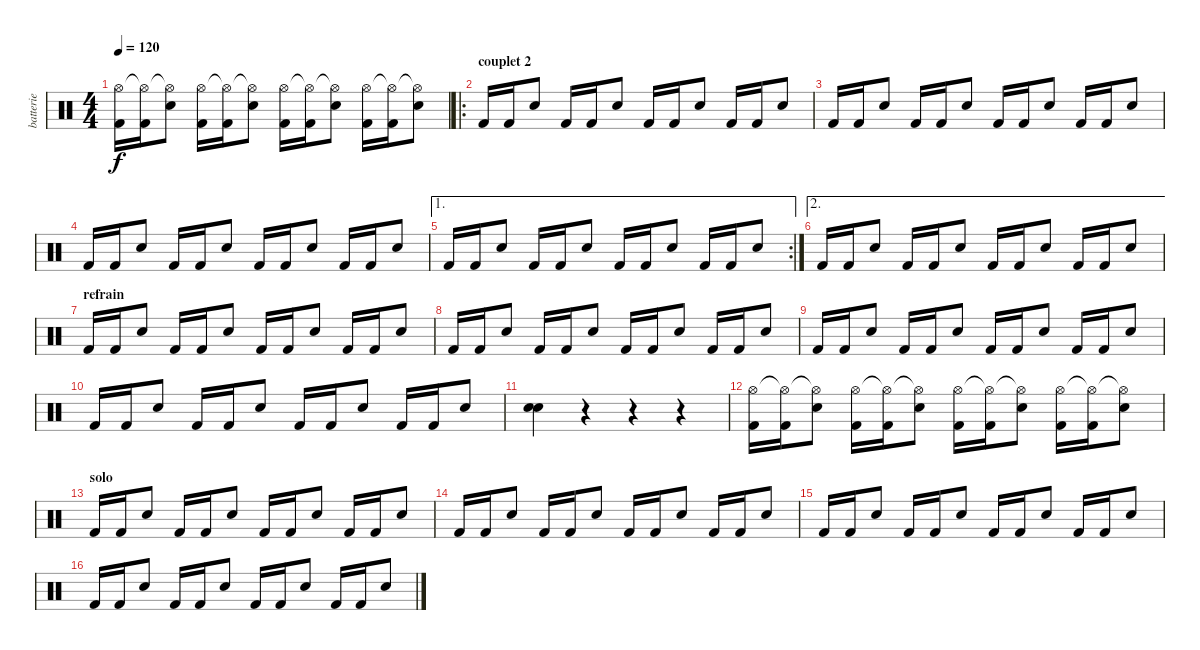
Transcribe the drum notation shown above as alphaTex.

\track ("batterie" "batterie") {instrument percussion}
\staff {score}
\articulation defaults
\ts (4 4)
\tempo 120
\clef neutral
\ks c
("Hi-Hat (open)" "Kick (hit) 2").16{dy f} ("Hi-Hat (open)"{t} "Kick (hit) 2").16 ("Hi-Hat (open)"{t} "Electric Snare (hit)").8 ("Hi-Hat (open)" "Kick (hit) 2").16 ("Hi-Hat (open)"{t} "Kick (hit) 2").16 ("Hi-Hat (open)"{t} "Electric Snare (hit)").8 ("Hi-Hat (open)" "Kick (hit) 2").16 ("Hi-Hat (open)"{t} "Kick (hit) 2").16 ("Hi-Hat (open)"{t} "Electric Snare (hit)").8 ("Hi-Hat (open)" "Kick (hit) 2").16 ("Hi-Hat (open)"{t} "Kick (hit) 2").16 ("Hi-Hat (open)"{t} "Electric Snare (hit)").8 |
\ro
\section ("" "couplet 2")
"Kick (hit) 2".16 "Kick (hit) 2".16 "Electric Snare (hit)".8 "Kick (hit) 2".16 "Kick (hit) 2".16 "Electric Snare (hit)".8 "Kick (hit) 2".16 "Kick (hit) 2".16 "Electric Snare (hit)".8 "Kick (hit) 2".16 "Kick (hit) 2".16 "Electric Snare (hit)".8 |
"Kick (hit) 2".16 "Kick (hit) 2".16 "Electric Snare (hit)".8 "Kick (hit) 2".16 "Kick (hit) 2".16 "Electric Snare (hit)".8 "Kick (hit) 2".16 "Kick (hit) 2".16 "Electric Snare (hit)".8 "Kick (hit) 2".16 "Kick (hit) 2".16 "Electric Snare (hit)".8 |
"Kick (hit) 2".16 "Kick (hit) 2".16 "Electric Snare (hit)".8 "Kick (hit) 2".16 "Kick (hit) 2".16 "Electric Snare (hit)".8 "Kick (hit) 2".16 "Kick (hit) 2".16 "Electric Snare (hit)".8 "Kick (hit) 2".16 "Kick (hit) 2".16 "Electric Snare (hit)".8 |
\ae 1
\rc 2 "Kick (hit) 2".16 "Kick (hit) 2".16 "Electric Snare (hit)".8 "Kick (hit) 2".16 "Kick (hit) 2".16 "Electric Snare (hit)".8 "Kick (hit) 2".16 "Kick (hit) 2".16 "Electric Snare (hit)".8 "Kick (hit) 2".16 "Kick (hit) 2".16 "Electric Snare (hit)".8
|
\ae 2 "Kick (hit) 2".16 "Kick (hit) 2".16 "Electric Snare (hit)".8 "Kick (hit) 2".16 "Kick (hit) 2".16 "Electric Snare (hit)".8 "Kick (hit) 2".16 "Kick (hit) 2".16 "Electric Snare (hit)".8 "Kick (hit) 2".16 "Kick (hit) 2".16 "Electric Snare (hit)".8
|
\section ("" "refrain")
"Kick (hit) 2".16 "Kick (hit) 2".16 "Electric Snare (hit)".8 "Kick (hit) 2".16 "Kick (hit) 2".16 "Electric Snare (hit)".8 "Kick (hit) 2".16 "Kick (hit) 2".16 "Electric Snare (hit)".8 "Kick (hit) 2".16 "Kick (hit) 2".16 "Electric Snare (hit)".8 |
"Kick (hit) 2".16 "Kick (hit) 2".16 "Electric Snare (hit)".8 "Kick (hit) 2".16 "Kick (hit) 2".16 "Electric Snare (hit)".8 "Kick (hit) 2".16 "Kick (hit) 2".16 "Electric Snare (hit)".8 "Kick (hit) 2".16 "Kick (hit) 2".16 "Electric Snare (hit)".8 |
"Kick (hit) 2".16 "Kick (hit) 2".16 "Electric Snare (hit)".8 "Kick (hit) 2".16 "Kick (hit) 2".16 "Electric Snare (hit)".8 "Kick (hit) 2".16 "Kick (hit) 2".16 "Electric Snare (hit)".8 "Kick (hit) 2".16 "Kick (hit) 2".16 "Electric Snare (hit)".8 |
"Kick (hit) 2".16 "Kick (hit) 2".16 "Electric Snare (hit)".8 "Kick (hit) 2".16 "Kick (hit) 2".16 "Electric Snare (hit)".8 "Kick (hit) 2".16 "Kick (hit) 2".16 "Electric Snare (hit)".8 "Kick (hit) 2".16 "Kick (hit) 2".16 "Electric Snare (hit)".8 |
("Electric Snare (hit)" "Snare (hit) 2").4 r.4 r.4 r.4 |
("Hi-Hat (open)" "Kick (hit) 2").16 ("Hi-Hat (open)"{t} "Kick (hit) 2").16 ("Hi-Hat (open)"{t} "Electric Snare (hit)").8 ("Hi-Hat (open)" "Kick (hit) 2").16 ("Hi-Hat (open)"{t} "Kick (hit) 2").16 ("Hi-Hat (open)"{t} "Electric Snare (hit)").8 ("Hi-Hat (open)" "Kick (hit) 2").16 ("Hi-Hat (open)"{t} "Kick (hit) 2").16 ("Hi-Hat (open)"{t} "Electric Snare (hit)").8 ("Hi-Hat (open)" "Kick (hit) 2").16 ("Hi-Hat (open)"{t} "Kick (hit) 2").16 ("Hi-Hat (open)"{t} "Electric Snare (hit)").8 |
\section ("" "solo")
"Kick (hit) 2".16 "Kick (hit) 2".16 "Electric Snare (hit)".8 "Kick (hit) 2".16 "Kick (hit) 2".16 "Electric Snare (hit)".8 "Kick (hit) 2".16 "Kick (hit) 2".16 "Electric Snare (hit)".8 "Kick (hit) 2".16 "Kick (hit) 2".16 "Electric Snare (hit)".8 |
"Kick (hit) 2".16 "Kick (hit) 2".16 "Electric Snare (hit)".8 "Kick (hit) 2".16 "Kick (hit) 2".16 "Electric Snare (hit)".8 "Kick (hit) 2".16 "Kick (hit) 2".16 "Electric Snare (hit)".8 "Kick (hit) 2".16 "Kick (hit) 2".16 "Electric Snare (hit)".8 |
"Kick (hit) 2".16 "Kick (hit) 2".16 "Electric Snare (hit)".8 "Kick (hit) 2".16 "Kick (hit) 2".16 "Electric Snare (hit)".8 "Kick (hit) 2".16 "Kick (hit) 2".16 "Electric Snare (hit)".8 "Kick (hit) 2".16 "Kick (hit) 2".16 "Electric Snare (hit)".8 |
"Kick (hit) 2".16 "Kick (hit) 2".16 "Electric Snare (hit)".8 "Kick (hit) 2".16 "Kick (hit) 2".16 "Electric Snare (hit)".8 "Kick (hit) 2".16 "Kick (hit) 2".16 "Electric Snare (hit)".8 "Kick (hit) 2".16 "Kick (hit) 2".16 "Electric Snare (hit)".8
